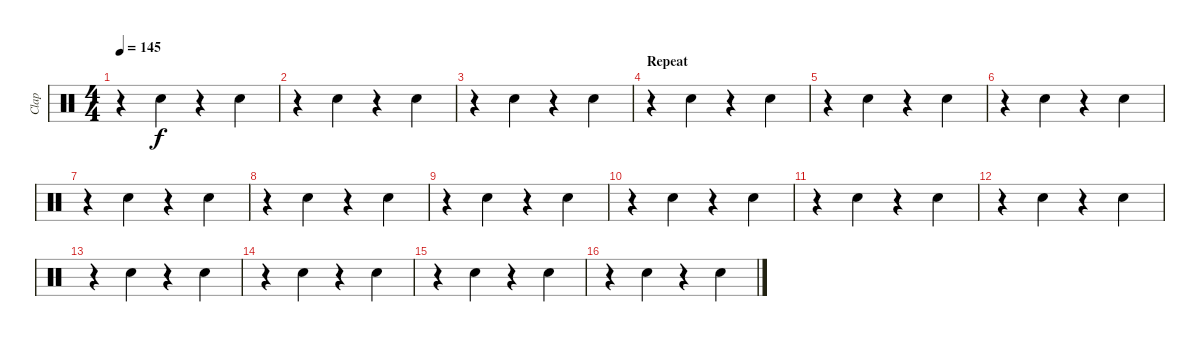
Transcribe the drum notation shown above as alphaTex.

\track ("Clap" "Clap") {instrument percussion}
\staff {score}
\articulation defaults
\ts (4 4)
\tempo 145
\clef neutral
\ks c
r.4{dy f} "Hand Clap (hit)".4 r.4 "Hand Clap (hit)".4 |
r.4 "Hand Clap (hit)".4 r.4 "Hand Clap (hit)".4 |
r.4 "Hand Clap (hit)".4 r.4 "Hand Clap (hit)".4 |
\section ("" "Repeat")
r.4 "Hand Clap (hit)".4 r.4 "Hand Clap (hit)".4 |
r.4 "Hand Clap (hit)".4 r.4 "Hand Clap (hit)".4 |
r.4 "Hand Clap (hit)".4 r.4 "Hand Clap (hit)".4 |
r.4 "Hand Clap (hit)".4 r.4 "Hand Clap (hit)".4 |
r.4 "Hand Clap (hit)".4 r.4 "Hand Clap (hit)".4 |
r.4 "Hand Clap (hit)".4 r.4 "Hand Clap (hit)".4 |
r.4 "Hand Clap (hit)".4 r.4 "Hand Clap (hit)".4 |
r.4 "Hand Clap (hit)".4 r.4 "Hand Clap (hit)".4 |
r.4 "Hand Clap (hit)".4 r.4 "Hand Clap (hit)".4 |
r.4 "Hand Clap (hit)".4 r.4 "Hand Clap (hit)".4 |
r.4 "Hand Clap (hit)".4 r.4 "Hand Clap (hit)".4 |
r.4 "Hand Clap (hit)".4 r.4 "Hand Clap (hit)".4 |
r.4 "Hand Clap (hit)".4 r.4 "Hand Clap (hit)".4
